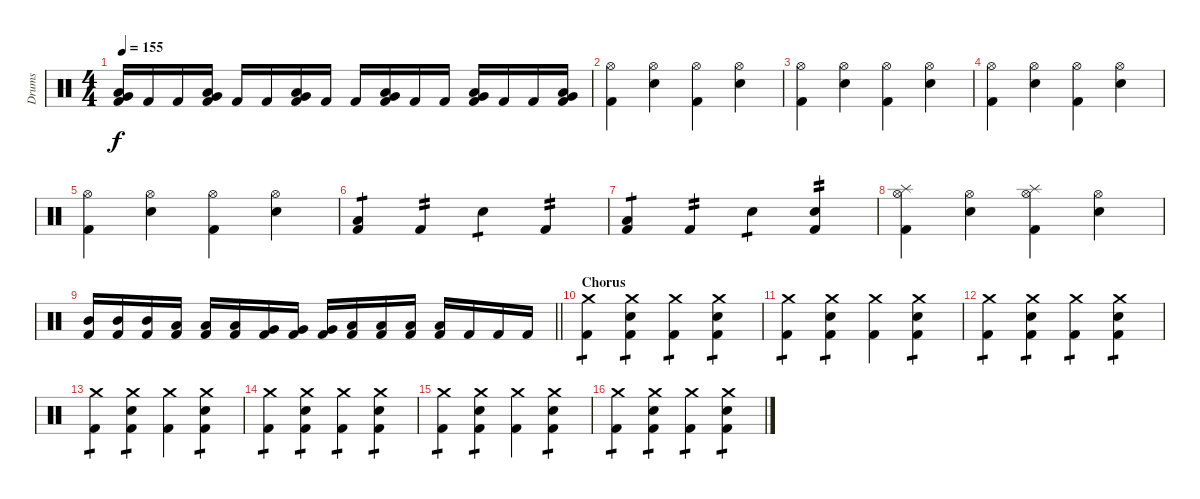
\track ("Drums" "Drums") {instrument percussion}
\staff {score}
\articulation defaults
\ts (4 4)
\tempo 155
\clef neutral
\ks c
("Kick (hit) 2" "Low Floor Tom (hit)" "Very Low Tom (hit)").16{dy f} "Kick (hit) 2".16 "Kick (hit) 2".16 ("Kick (hit) 2" "Low Floor Tom (hit)" "Very Low Tom (hit)").16 "Kick (hit) 2".16 "Kick (hit) 2".16 ("Kick (hit) 2" "Low Floor Tom (hit)" "Very Low Tom (hit)").16 "Kick (hit) 2".16 "Kick (hit) 2".16 ("Kick (hit) 2" "Low Floor Tom (hit)" "Very Low Tom (hit)").16 "Kick (hit) 2".16 "Kick (hit) 2".16 ("Kick (hit) 2" "Low Floor Tom (hit)" "Very Low Tom (hit)").16 "Kick (hit) 2".16 "Kick (hit) 2".16 ("Kick (hit) 2" "Low Floor Tom (hit)" "Very Low Tom (hit)").16 |
("Hi-Hat (open)" "Kick (hit) 2").4 ("Hi-Hat (open)" "Snare (hit) 2").4 ("Hi-Hat (open)" "Kick (hit) 2").4 ("Hi-Hat (open)" "Snare (hit) 2").4 |
("Hi-Hat (open)" "Kick (hit) 2").4 ("Hi-Hat (open)" "Snare (hit) 2").4 ("Hi-Hat (open)" "Kick (hit) 2").4 ("Hi-Hat (open)" "Snare (hit) 2").4 |
("Hi-Hat (open)" "Kick (hit) 2").4 ("Hi-Hat (open)" "Snare (hit) 2").4 ("Hi-Hat (open)" "Kick (hit) 2").4 ("Hi-Hat (open)" "Snare (hit) 2").4 |
("Hi-Hat (open)" "Kick (hit) 2").4 ("Hi-Hat (open)" "Snare (hit) 2").4 ("Hi-Hat (open)" "Kick (hit) 2").4 ("Hi-Hat (open)" "Snare (hit) 2").4 |
("Kick (hit) 2" "Low Floor Tom (hit)").4{tp 1} "Kick (hit) 2".4{tp 2} "Snare (hit) 2".4{tp 1} "Kick (hit) 2".4{tp 2} |
("Kick (hit) 2" "Low Floor Tom (hit)").4{tp 1} "Kick (hit) 2".4{tp 2} "Snare (hit) 2".4{tp 1} ("Kick (hit) 2" "Snare (hit) 2").4{tp 2} |
("Hi-Hat (open)" "Kick (hit) 2" "Splash (hit)").4 ("Hi-Hat (open)" "Snare (hit) 2").4 ("Hi-Hat (open)" "Kick (hit) 2" "Splash (hit)").4 ("Hi-Hat (open)" "Snare (hit) 2").4 |
\barLineRight lightlight
("Kick (hit) 2" "Mid Tom (hit)").16 ("Kick (hit) 2" "Mid Tom (hit)").16 ("Kick (hit) 2" "Mid Tom (hit)").16 ("Kick (hit) 2" "Low Tom (hit)").16 ("Kick (hit) 2" "Low Tom (hit)").16 ("Kick (hit) 2" "Low Tom (hit)").16 ("Kick (hit) 2" "Very Low Tom (hit)").16 ("Kick (hit) 2" "Very Low Tom (hit)").16 ("Kick (hit) 2" "Very Low Tom (hit)").16 ("Kick (hit) 2" "Low Floor Tom (hit)").16 ("Kick (hit) 2" "Low Floor Tom (hit)").16 ("Kick (hit) 2" "Low Floor Tom (hit)").16 ("Kick (hit) 2" "Low Floor Tom (hit)").16 "Kick (hit) 2".16 "Kick (hit) 2".16 "Kick (hit) 2".16 |
\section ("" "Chorus")
("Crash medium (hit)" "Kick (hit) 2").4{tp 1} ("Crash medium (hit)" "Snare (hit) 2" "Kick (hit) 2").4{tp 1} ("Crash medium (hit)" "Kick (hit) 2").4{tp 1} ("Crash medium (hit)" "Snare (hit) 2" "Kick (hit) 2").4{tp 1} |
("Crash medium (hit)" "Kick (hit) 2").4{tp 1} ("Crash medium (hit)" "Snare (hit) 2" "Kick (hit) 2").4{tp 1} ("Crash medium (hit)" "Kick (hit) 2").4 ("Crash medium (hit)" "Snare (hit) 2" "Kick (hit) 2").4{tp 1} |
("Crash medium (hit)" "Kick (hit) 2").4{tp 1} ("Crash medium (hit)" "Snare (hit) 2" "Kick (hit) 2").4{tp 1} ("Crash medium (hit)" "Kick (hit) 2").4{tp 1} ("Crash medium (hit)" "Snare (hit) 2" "Kick (hit) 2").4{tp 1} |
("Crash medium (hit)" "Kick (hit) 2").4{tp 1} ("Crash medium (hit)" "Snare (hit) 2" "Kick (hit) 2").4{tp 1} ("Crash medium (hit)" "Kick (hit) 2").4 ("Crash medium (hit)" "Snare (hit) 2" "Kick (hit) 2").4{tp 1} |
("Crash medium (hit)" "Kick (hit) 2").4{tp 1} ("Crash medium (hit)" "Snare (hit) 2" "Kick (hit) 2").4{tp 1} ("Crash medium (hit)" "Kick (hit) 2").4{tp 1} ("Crash medium (hit)" "Snare (hit) 2" "Kick (hit) 2").4{tp 1} |
("Crash medium (hit)" "Kick (hit) 2").4{tp 1} ("Crash medium (hit)" "Snare (hit) 2" "Kick (hit) 2").4{tp 1} ("Crash medium (hit)" "Kick (hit) 2").4 ("Crash medium (hit)" "Snare (hit) 2" "Kick (hit) 2").4{tp 1} |
("Crash medium (hit)" "Kick (hit) 2").4{tp 1} ("Crash medium (hit)" "Snare (hit) 2" "Kick (hit) 2").4{tp 1} ("Crash medium (hit)" "Kick (hit) 2").4{tp 1} ("Crash medium (hit)" "Snare (hit) 2" "Kick (hit) 2").4{tp 1}
